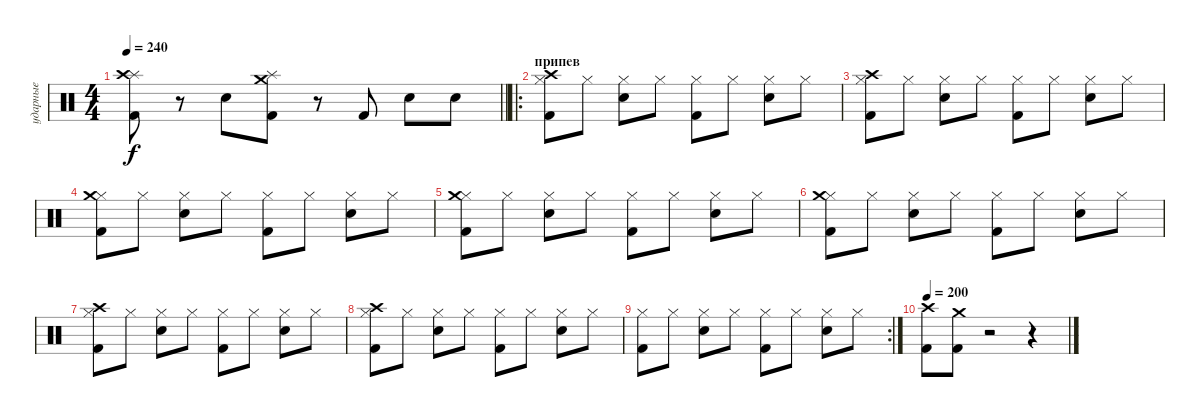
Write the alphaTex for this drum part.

\track ("ударные" "ударные") {instrument percussion}
\staff {score}
\articulation defaults
\ts (4 4)
\tempo 240
\clef neutral
\barLineRight lightlight
\ks c
("Splash (hit)" "Crash high (hit)" "Kick (hit) 2").8{dy f} r.8 "Electric Snare (hit)".8 ("Splash (hit)" "Crash medium (hit)" "Kick (hit) 2").8 r.8 "Kick (hit) 2".8 "Electric Snare (hit)".8 "Electric Snare (hit)".8 |
\ro
\section ("" "припев")
("Hi-Hat (closed)" "Crash high (hit)" "Kick (hit) 2").8 "Hi-Hat (closed)".8 ("Hi-Hat (closed)" "Electric Snare (hit)").8 "Hi-Hat (closed)".8 ("Hi-Hat (closed)" "Kick (hit) 2").8 "Hi-Hat (closed)".8 ("Hi-Hat (closed)" "Electric Snare (hit)").8 "Hi-Hat (closed)".8 |
("Hi-Hat (closed)" "Crash high (hit)" "Kick (hit) 2").8 "Hi-Hat (closed)".8 ("Hi-Hat (closed)" "Electric Snare (hit)").8 "Hi-Hat (closed)".8 ("Hi-Hat (closed)" "Kick (hit) 2").8 "Hi-Hat (closed)".8 ("Hi-Hat (closed)" "Electric Snare (hit)").8 "Hi-Hat (closed)".8 |
("Hi-Hat (closed)" "Crash medium (hit)" "Kick (hit) 2").8 "Hi-Hat (closed)".8 ("Hi-Hat (closed)" "Electric Snare (hit)").8 "Hi-Hat (closed)".8 ("Hi-Hat (closed)" "Kick (hit) 2").8 "Hi-Hat (closed)".8 ("Hi-Hat (closed)" "Electric Snare (hit)").8 "Hi-Hat (closed)".8 |
("Hi-Hat (closed)" "Crash medium (hit)" "Kick (hit) 2").8 "Hi-Hat (closed)".8 ("Hi-Hat (closed)" "Electric Snare (hit)").8 "Hi-Hat (closed)".8 ("Hi-Hat (closed)" "Kick (hit) 2").8 "Hi-Hat (closed)".8 ("Hi-Hat (closed)" "Electric Snare (hit)").8 "Hi-Hat (closed)".8 |
("Hi-Hat (closed)" "Kick (hit) 2" "Crash medium (hit)").8 "Hi-Hat (closed)".8 ("Hi-Hat (closed)" "Electric Snare (hit)").8 "Hi-Hat (closed)".8 ("Hi-Hat (closed)" "Kick (hit) 2").8 "Hi-Hat (closed)".8 ("Hi-Hat (closed)" "Electric Snare (hit)").8 "Hi-Hat (closed)".8 |
("Hi-Hat (closed)" "Kick (hit) 2" "Crash high (hit)").8 "Hi-Hat (closed)".8 ("Hi-Hat (closed)" "Electric Snare (hit)").8 "Hi-Hat (closed)".8 ("Hi-Hat (closed)" "Kick (hit) 2").8 "Hi-Hat (closed)".8 ("Hi-Hat (closed)" "Electric Snare (hit)").8 "Hi-Hat (closed)".8 |
("Hi-Hat (closed)" "Kick (hit) 2" "Crash high (hit)").8 "Hi-Hat (closed)".8 ("Hi-Hat (closed)" "Electric Snare (hit)").8 "Hi-Hat (closed)".8 ("Hi-Hat (closed)" "Kick (hit) 2").8 "Hi-Hat (closed)".8 ("Hi-Hat (closed)" "Electric Snare (hit)").8 "Hi-Hat (closed)".8 |
\rc 2
("Hi-Hat (closed)" "Kick (hit) 2").8 "Hi-Hat (closed)".8 ("Hi-Hat (closed)" "Electric Snare (hit)").8 "Hi-Hat (closed)".8 ("Hi-Hat (closed)" "Kick (hit) 2").8 "Hi-Hat (closed)".8 ("Hi-Hat (closed)" "Electric Snare (hit)").8 "Hi-Hat (closed)".8 |
\tempo 200
("Crash high (hit)" "Kick (hit) 2").8 ("Crash medium (hit)" "Kick (hit) 2").8 r.2 r.4
